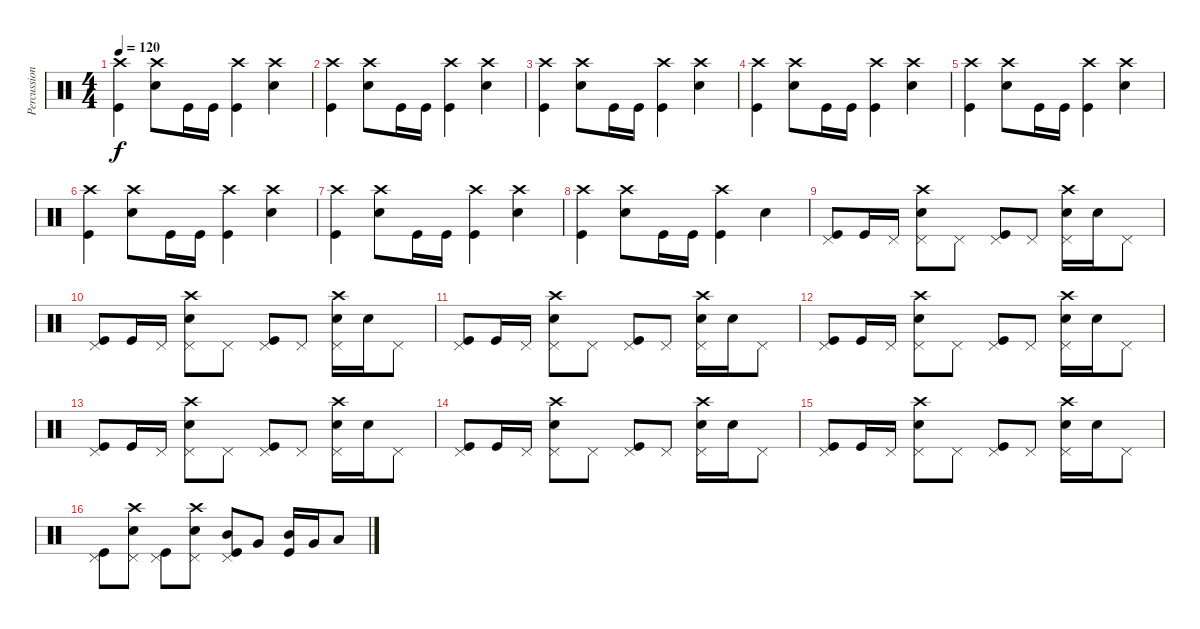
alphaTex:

\track ("Percussion" "Percussion") {instrument percussion}
\staff {score}
\articulation defaults
\ts (4 4)
\tempo 120
\clef neutral
\ks c
("Crash high (hit)" "Kick (hit)").4{dy f} ("Crash high (hit)" "Electric Snare (hit)").8 "Kick (hit)".16 "Kick (hit)".16 ("Crash high (hit)" "Kick (hit)").4 ("Crash high (hit)" "Electric Snare (hit)").4 |
("Crash high (hit)" "Kick (hit)").4 ("Crash high (hit)" "Electric Snare (hit)").8 "Kick (hit)".16 "Kick (hit)".16 ("Crash high (hit)" "Kick (hit)").4 ("Crash high (hit)" "Electric Snare (hit)").4 |
("Crash high (hit)" "Kick (hit)").4 ("Crash high (hit)" "Electric Snare (hit)").8 "Kick (hit)".16 "Kick (hit)".16 ("Crash high (hit)" "Kick (hit)").4 ("Crash high (hit)" "Electric Snare (hit)").4 |
("Crash high (hit)" "Kick (hit)").4 ("Crash high (hit)" "Electric Snare (hit)").8 "Kick (hit)".16 "Kick (hit)".16 ("Crash high (hit)" "Kick (hit)").4 ("Crash high (hit)" "Electric Snare (hit)").4 |
("Crash high (hit)" "Kick (hit)").4 ("Crash high (hit)" "Electric Snare (hit)").8 "Kick (hit)".16 "Kick (hit)".16 ("Crash high (hit)" "Kick (hit)").4 ("Crash high (hit)" "Electric Snare (hit)").4 |
("Crash high (hit)" "Kick (hit)").4 ("Crash high (hit)" "Electric Snare (hit)").8 "Kick (hit)".16 "Kick (hit)".16 ("Crash high (hit)" "Kick (hit)").4 ("Crash high (hit)" "Electric Snare (hit)").4 |
("Crash high (hit)" "Kick (hit)").4 ("Crash high (hit)" "Electric Snare (hit)").8 "Kick (hit)".16 "Kick (hit)".16 ("Crash high (hit)" "Kick (hit)").4 ("Crash high (hit)" "Electric Snare (hit)").4 |
("Crash high (hit)" "Kick (hit)").4 ("Crash high (hit)" "Electric Snare (hit)").8 "Kick (hit)".16 "Kick (hit)".16 ("Crash high (hit)" "Kick (hit)").4 "Electric Snare (hit)".4 |
("Pedal Hi-Hat (hit)" "Kick (hit)").8 "Kick (hit)".16 "Pedal Hi-Hat (hit)".16 ("Crash high (hit)" "Pedal Hi-Hat (hit)" "Electric Snare (hit)").8 "Pedal Hi-Hat (hit)".8 ("Pedal Hi-Hat (hit)" "Kick (hit)").8 "Pedal Hi-Hat (hit)".8 ("Crash high (hit)" "Pedal Hi-Hat (hit)" "Electric Snare (hit)").16 "Electric Snare (hit)".16 "Pedal Hi-Hat (hit)".8 |
("Pedal Hi-Hat (hit)" "Kick (hit)").8 "Kick (hit)".16 "Pedal Hi-Hat (hit)".16 ("Crash high (hit)" "Pedal Hi-Hat (hit)" "Electric Snare (hit)").8 "Pedal Hi-Hat (hit)".8 ("Pedal Hi-Hat (hit)" "Kick (hit)").8 "Pedal Hi-Hat (hit)".8 ("Crash high (hit)" "Pedal Hi-Hat (hit)" "Electric Snare (hit)").16 "Electric Snare (hit)".16 "Pedal Hi-Hat (hit)".8 |
("Pedal Hi-Hat (hit)" "Kick (hit)").8 "Kick (hit)".16 "Pedal Hi-Hat (hit)".16 ("Crash high (hit)" "Pedal Hi-Hat (hit)" "Electric Snare (hit)").8 "Pedal Hi-Hat (hit)".8 ("Pedal Hi-Hat (hit)" "Kick (hit)").8 "Pedal Hi-Hat (hit)".8 ("Crash high (hit)" "Pedal Hi-Hat (hit)" "Electric Snare (hit)").16 "Electric Snare (hit)".16 "Pedal Hi-Hat (hit)".8 |
("Pedal Hi-Hat (hit)" "Kick (hit)").8 "Kick (hit)".16 "Pedal Hi-Hat (hit)".16 ("Crash high (hit)" "Pedal Hi-Hat (hit)" "Electric Snare (hit)").8 "Pedal Hi-Hat (hit)".8 ("Pedal Hi-Hat (hit)" "Kick (hit)").8 "Pedal Hi-Hat (hit)".8 ("Crash high (hit)" "Pedal Hi-Hat (hit)" "Electric Snare (hit)").16 "Electric Snare (hit)".16 "Pedal Hi-Hat (hit)".8 |
("Pedal Hi-Hat (hit)" "Kick (hit)").8 "Kick (hit)".16 "Pedal Hi-Hat (hit)".16 ("Crash high (hit)" "Pedal Hi-Hat (hit)" "Electric Snare (hit)").8 "Pedal Hi-Hat (hit)".8 ("Pedal Hi-Hat (hit)" "Kick (hit)").8 "Pedal Hi-Hat (hit)".8 ("Crash high (hit)" "Pedal Hi-Hat (hit)" "Electric Snare (hit)").16 "Electric Snare (hit)".16 "Pedal Hi-Hat (hit)".8 |
("Pedal Hi-Hat (hit)" "Kick (hit)").8 "Kick (hit)".16 "Pedal Hi-Hat (hit)".16 ("Crash high (hit)" "Pedal Hi-Hat (hit)" "Electric Snare (hit)").8 "Pedal Hi-Hat (hit)".8 ("Pedal Hi-Hat (hit)" "Kick (hit)").8 "Pedal Hi-Hat (hit)".8 ("Crash high (hit)" "Pedal Hi-Hat (hit)" "Electric Snare (hit)").16 "Electric Snare (hit)".16 "Pedal Hi-Hat (hit)".8 |
("Pedal Hi-Hat (hit)" "Kick (hit)").8 "Kick (hit)".16 "Pedal Hi-Hat (hit)".16 ("Crash high (hit)" "Pedal Hi-Hat (hit)" "Electric Snare (hit)").8 "Pedal Hi-Hat (hit)".8 ("Pedal Hi-Hat (hit)" "Kick (hit)").8 "Pedal Hi-Hat (hit)".8 ("Crash high (hit)" "Pedal Hi-Hat (hit)" "Electric Snare (hit)").16 "Electric Snare (hit)".16 "Pedal Hi-Hat (hit)".8 |
("Pedal Hi-Hat (hit)" "Kick (hit)").8 ("Crash high (hit)" "Pedal Hi-Hat (hit)" "Electric Snare (hit)").8 ("Pedal Hi-Hat (hit)" "Kick (hit)").8 ("Crash high (hit)" "Pedal Hi-Hat (hit)" "Electric Snare (hit)").8 ("Mid Tom (hit)" "Pedal Hi-Hat (hit)" "Kick (hit)").8 "Very Low Tom (hit)".8 ("Mid Tom (hit)" "Kick (hit)").16 "Very Low Tom (hit)".16 "Low Floor Tom (hit)".8
